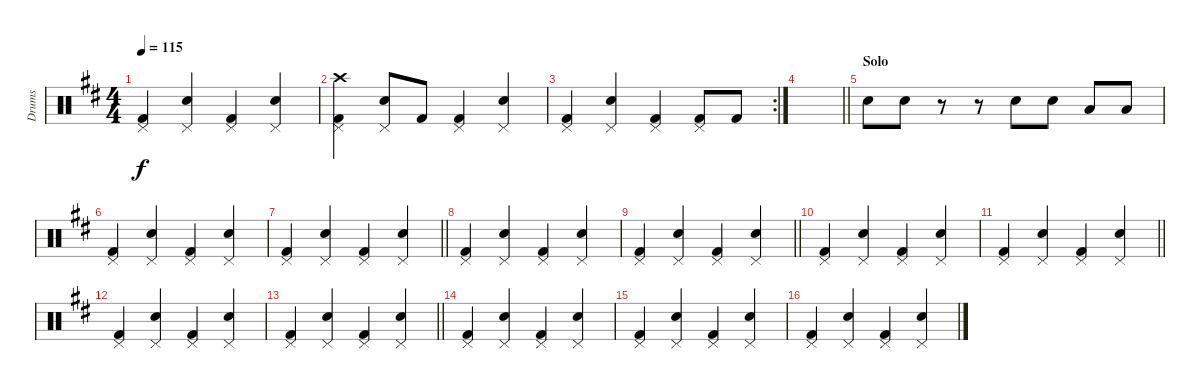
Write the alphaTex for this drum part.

\track ("Drums" "Drums") {instrument percussion}
\staff {score}
\articulation defaults
\ts (4 4)
\tempo 115
\clef neutral
\ks d
("Kick (hit) 2" "Pedal Hi-Hat (hit)").4{dy f} ("Snare (hit) 2" "Pedal Hi-Hat (hit)").4 ("Kick (hit) 2" "Pedal Hi-Hat (hit)").4 ("Snare (hit) 2" "Pedal Hi-Hat (hit)").4 |
("Kick (hit) 2" "Pedal Hi-Hat (hit)" "Crash high (hit)").4 ("Snare (hit) 2" "Pedal Hi-Hat (hit)").8 "Kick (hit) 2".8 ("Kick (hit) 2" "Pedal Hi-Hat (hit)").4 ("Snare (hit) 2" "Pedal Hi-Hat (hit)").4 |
\rc 2
("Kick (hit) 2" "Pedal Hi-Hat (hit)").4 ("Snare (hit) 2" "Pedal Hi-Hat (hit)").4 ("Kick (hit) 2" "Pedal Hi-Hat (hit)").4 ("Kick (hit) 2" "Pedal Hi-Hat (hit)").8 "Kick (hit) 2".8 |
\barLineRight lightlight
|
\section ("" "Solo")
"Snare (hit) 2".8 "Snare (hit) 2".8 r.8 r.8 "Snare (hit) 2".8 "Snare (hit) 2".8 "Low Tom (hit)".8 "Low Floor Tom (hit)".8 |
("Kick (hit) 2" "Pedal Hi-Hat (hit)").4 ("Snare (hit) 2" "Pedal Hi-Hat (hit)").4 ("Kick (hit) 2" "Pedal Hi-Hat (hit)").4 ("Snare (hit) 2" "Pedal Hi-Hat (hit)").4 |
\barLineRight lightlight
("Kick (hit) 2" "Pedal Hi-Hat (hit)").4 ("Snare (hit) 2" "Pedal Hi-Hat (hit)").4 ("Kick (hit) 2" "Pedal Hi-Hat (hit)").4 ("Snare (hit) 2" "Pedal Hi-Hat (hit)").4 |
("Kick (hit) 2" "Pedal Hi-Hat (hit)").4 ("Snare (hit) 2" "Pedal Hi-Hat (hit)").4 ("Kick (hit) 2" "Pedal Hi-Hat (hit)").4 ("Snare (hit) 2" "Pedal Hi-Hat (hit)").4 |
\barLineRight lightlight
("Kick (hit) 2" "Pedal Hi-Hat (hit)").4 ("Snare (hit) 2" "Pedal Hi-Hat (hit)").4 ("Kick (hit) 2" "Pedal Hi-Hat (hit)").4 ("Snare (hit) 2" "Pedal Hi-Hat (hit)").4 |
("Kick (hit) 2" "Pedal Hi-Hat (hit)").4 ("Snare (hit) 2" "Pedal Hi-Hat (hit)").4 ("Kick (hit) 2" "Pedal Hi-Hat (hit)").4 ("Snare (hit) 2" "Pedal Hi-Hat (hit)").4 |
\barLineRight lightlight
("Kick (hit) 2" "Pedal Hi-Hat (hit)").4 ("Snare (hit) 2" "Pedal Hi-Hat (hit)").4 ("Kick (hit) 2" "Pedal Hi-Hat (hit)").4 ("Snare (hit) 2" "Pedal Hi-Hat (hit)").4 |
("Kick (hit) 2" "Pedal Hi-Hat (hit)").4 ("Snare (hit) 2" "Pedal Hi-Hat (hit)").4 ("Kick (hit) 2" "Pedal Hi-Hat (hit)").4 ("Snare (hit) 2" "Pedal Hi-Hat (hit)").4 |
\barLineRight lightlight
("Kick (hit) 2" "Pedal Hi-Hat (hit)").4 ("Snare (hit) 2" "Pedal Hi-Hat (hit)").4 ("Kick (hit) 2" "Pedal Hi-Hat (hit)").4 ("Snare (hit) 2" "Pedal Hi-Hat (hit)").4 |
("Kick (hit) 2" "Pedal Hi-Hat (hit)").4 ("Snare (hit) 2" "Pedal Hi-Hat (hit)").4 ("Kick (hit) 2" "Pedal Hi-Hat (hit)").4 ("Snare (hit) 2" "Pedal Hi-Hat (hit)").4 |
("Kick (hit) 2" "Pedal Hi-Hat (hit)").4 ("Snare (hit) 2" "Pedal Hi-Hat (hit)").4 ("Kick (hit) 2" "Pedal Hi-Hat (hit)").4 ("Snare (hit) 2" "Pedal Hi-Hat (hit)").4 |
("Kick (hit) 2" "Pedal Hi-Hat (hit)").4 ("Snare (hit) 2" "Pedal Hi-Hat (hit)").4 ("Kick (hit) 2" "Pedal Hi-Hat (hit)").4 ("Snare (hit) 2" "Pedal Hi-Hat (hit)").4
